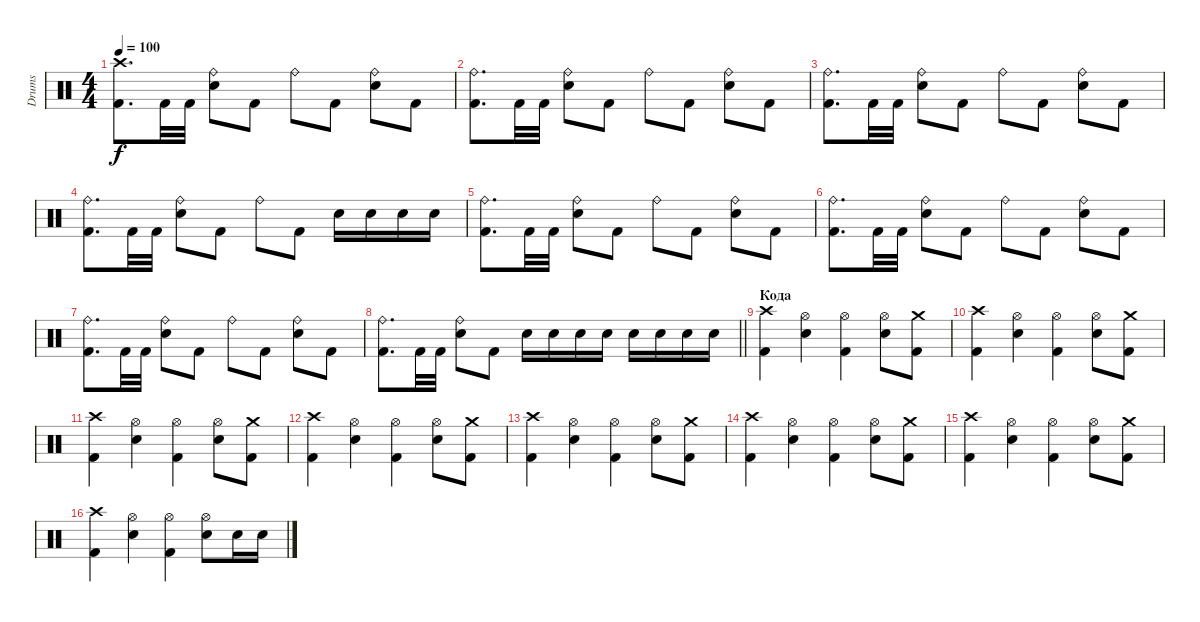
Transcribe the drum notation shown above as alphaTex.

\track ("Drums" "Drums") {instrument percussion}
\staff {score}
\articulation defaults
\ts (4 4)
\tempo 100
\clef neutral
\ks c
("Crash high (hit)" "Kick (hit) 2").8{d dy f} "Kick (hit) 2".32 "Kick (hit) 2".32 ("Ride (bell)" "Snare (hit) 2").8 "Kick (hit) 2".8 "Ride (bell)".8 "Kick (hit) 2".8 ("Ride (bell)" "Snare (hit) 2").8 "Kick (hit) 2".8 |
("Ride (bell)" "Kick (hit) 2").8{d} "Kick (hit) 2".32 "Kick (hit) 2".32 ("Ride (bell)" "Snare (hit) 2").8 "Kick (hit) 2".8 "Ride (bell)".8 "Kick (hit) 2".8 ("Ride (bell)" "Snare (hit) 2").8 "Kick (hit) 2".8 |
("Ride (bell)" "Kick (hit) 2").8{d} "Kick (hit) 2".32 "Kick (hit) 2".32 ("Ride (bell)" "Snare (hit) 2").8 "Kick (hit) 2".8 "Ride (bell)".8 "Kick (hit) 2".8 ("Ride (bell)" "Snare (hit) 2").8 "Kick (hit) 2".8 |
("Ride (bell)" "Kick (hit) 2").8{d} "Kick (hit) 2".32 "Kick (hit) 2".32 ("Ride (bell)" "Snare (hit) 2").8 "Kick (hit) 2".8 "Ride (bell)".8 "Kick (hit) 2".8 "Snare (hit) 2".16 "Snare (hit) 2".16 "Snare (hit) 2".16 "Snare (hit) 2".16 |
("Ride (bell)" "Kick (hit) 2").8{d} "Kick (hit) 2".32 "Kick (hit) 2".32 ("Ride (bell)" "Snare (hit) 2").8 "Kick (hit) 2".8 "Ride (bell)".8 "Kick (hit) 2".8 ("Ride (bell)" "Snare (hit) 2").8 "Kick (hit) 2".8 |
("Ride (bell)" "Kick (hit) 2").8{d} "Kick (hit) 2".32 "Kick (hit) 2".32 ("Ride (bell)" "Snare (hit) 2").8 "Kick (hit) 2".8 "Ride (bell)".8 "Kick (hit) 2".8 ("Ride (bell)" "Snare (hit) 2").8 "Kick (hit) 2".8 |
("Ride (bell)" "Kick (hit) 2").8{d} "Kick (hit) 2".32 "Kick (hit) 2".32 ("Ride (bell)" "Snare (hit) 2").8 "Kick (hit) 2".8 "Ride (bell)".8 "Kick (hit) 2".8 ("Ride (bell)" "Snare (hit) 2").8 "Kick (hit) 2".8 |
\barLineRight lightlight
("Ride (bell)" "Kick (hit) 2").8{d} "Kick (hit) 2".32 "Kick (hit) 2".32 ("Ride (bell)" "Snare (hit) 2").8 "Kick (hit) 2".8 "Snare (hit) 2".16 "Snare (hit) 2".16 "Snare (hit) 2".16 "Snare (hit) 2".16 "Snare (hit) 2".16 "Snare (hit) 2".16 "Snare (hit) 2".16 "Snare (hit) 2".16 |
\section ("" "Кода")
("Crash high (hit)" "Kick (hit) 2").4 ("Hi-Hat (open)" "Snare (hit) 2").4 ("Hi-Hat (open)" "Kick (hit) 2").4 ("Hi-Hat (open)" "Snare (hit) 2").8 ("Crash medium (hit)" "Kick (hit) 2").8 |
("Crash high (hit)" "Kick (hit) 2").4 ("Hi-Hat (open)" "Snare (hit) 2").4 ("Hi-Hat (open)" "Kick (hit) 2").4 ("Hi-Hat (open)" "Snare (hit) 2").8 ("Crash medium (hit)" "Kick (hit) 2").8 |
("Crash high (hit)" "Kick (hit) 2").4 ("Hi-Hat (open)" "Snare (hit) 2").4 ("Hi-Hat (open)" "Kick (hit) 2").4 ("Hi-Hat (open)" "Snare (hit) 2").8 ("Crash medium (hit)" "Kick (hit) 2").8 |
("Crash high (hit)" "Kick (hit) 2").4 ("Hi-Hat (open)" "Snare (hit) 2").4 ("Hi-Hat (open)" "Kick (hit) 2").4 ("Hi-Hat (open)" "Snare (hit) 2").8 ("Crash medium (hit)" "Kick (hit) 2").8 |
("Crash high (hit)" "Kick (hit) 2").4 ("Hi-Hat (open)" "Snare (hit) 2").4 ("Hi-Hat (open)" "Kick (hit) 2").4 ("Hi-Hat (open)" "Snare (hit) 2").8 ("Crash medium (hit)" "Kick (hit) 2").8 |
("Crash high (hit)" "Kick (hit) 2").4 ("Hi-Hat (open)" "Snare (hit) 2").4 ("Hi-Hat (open)" "Kick (hit) 2").4 ("Hi-Hat (open)" "Snare (hit) 2").8 ("Crash medium (hit)" "Kick (hit) 2").8 |
("Crash high (hit)" "Kick (hit) 2").4 ("Hi-Hat (open)" "Snare (hit) 2").4 ("Hi-Hat (open)" "Kick (hit) 2").4 ("Hi-Hat (open)" "Snare (hit) 2").8 ("Crash medium (hit)" "Kick (hit) 2").8 |
("Crash high (hit)" "Kick (hit) 2").4 ("Hi-Hat (open)" "Snare (hit) 2").4 ("Hi-Hat (open)" "Kick (hit) 2").4 ("Hi-Hat (open)" "Snare (hit) 2").8 "Snare (hit) 2".16 "Snare (hit) 2".16
